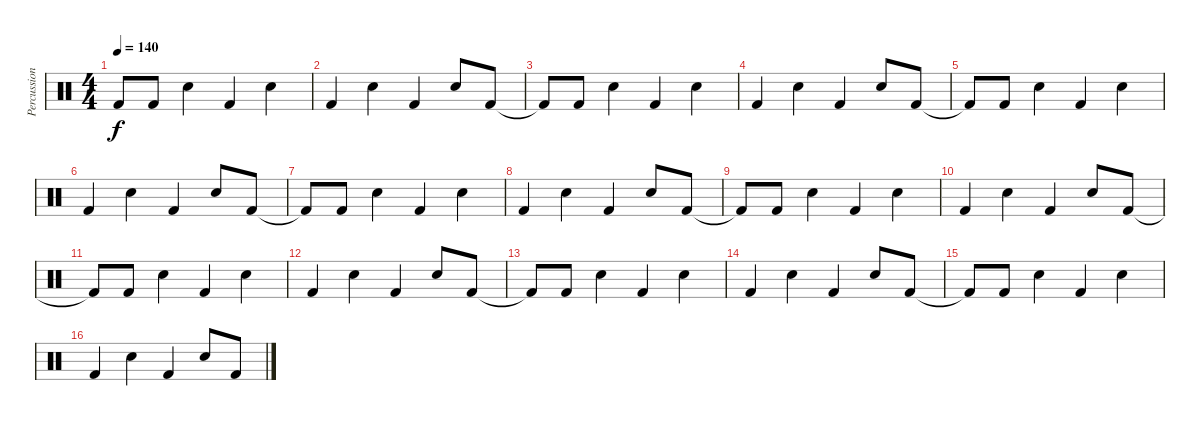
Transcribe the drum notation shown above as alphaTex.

\track ("Percussion" "Percussion") {instrument percussion}
\staff {score}
\articulation defaults
\ts (4 4)
\tempo 140
\clef neutral
\ks c "Kick (hit) 2"{t}.8{dy f} "Kick (hit) 2".8 "Electric Snare (hit)".4 "Kick (hit) 2".4 "Electric Snare (hit)".4
|
"Kick (hit) 2".4 "Electric Snare (hit)".4 "Kick (hit) 2".4 "Electric Snare (hit)".8 "Kick (hit) 2".8 |
"Kick (hit) 2"{t}.8 "Kick (hit) 2".8 "Electric Snare (hit)".4 "Kick (hit) 2".4 "Electric Snare (hit)".4 |
"Kick (hit) 2".4 "Electric Snare (hit)".4 "Kick (hit) 2".4 "Electric Snare (hit)".8 "Kick (hit) 2".8 |
"Kick (hit) 2"{t}.8 "Kick (hit) 2".8 "Electric Snare (hit)".4 "Kick (hit) 2".4 "Electric Snare (hit)".4 |
"Kick (hit) 2".4 "Electric Snare (hit)".4 "Kick (hit) 2".4 "Electric Snare (hit)".8 "Kick (hit) 2".8 |
"Kick (hit) 2"{t}.8 "Kick (hit) 2".8 "Electric Snare (hit)".4 "Kick (hit) 2".4 "Electric Snare (hit)".4 |
"Kick (hit) 2".4 "Electric Snare (hit)".4 "Kick (hit) 2".4 "Electric Snare (hit)".8 "Kick (hit) 2".8 |
"Kick (hit) 2"{t}.8 "Kick (hit) 2".8 "Electric Snare (hit)".4 "Kick (hit) 2".4 "Electric Snare (hit)".4 |
"Kick (hit) 2".4 "Electric Snare (hit)".4 "Kick (hit) 2".4 "Electric Snare (hit)".8 "Kick (hit) 2".8 |
"Kick (hit) 2"{t}.8 "Kick (hit) 2".8 "Electric Snare (hit)".4 "Kick (hit) 2".4 "Electric Snare (hit)".4 |
"Kick (hit) 2".4 "Electric Snare (hit)".4 "Kick (hit) 2".4 "Electric Snare (hit)".8 "Kick (hit) 2".8 |
"Kick (hit) 2"{t}.8 "Kick (hit) 2".8 "Electric Snare (hit)".4 "Kick (hit) 2".4 "Electric Snare (hit)".4 |
"Kick (hit) 2".4 "Electric Snare (hit)".4 "Kick (hit) 2".4 "Electric Snare (hit)".8 "Kick (hit) 2".8 |
"Kick (hit) 2"{t}.8 "Kick (hit) 2".8 "Electric Snare (hit)".4 "Kick (hit) 2".4 "Electric Snare (hit)".4 |
"Kick (hit) 2".4 "Electric Snare (hit)".4 "Kick (hit) 2".4 "Electric Snare (hit)".8 "Kick (hit) 2".8
